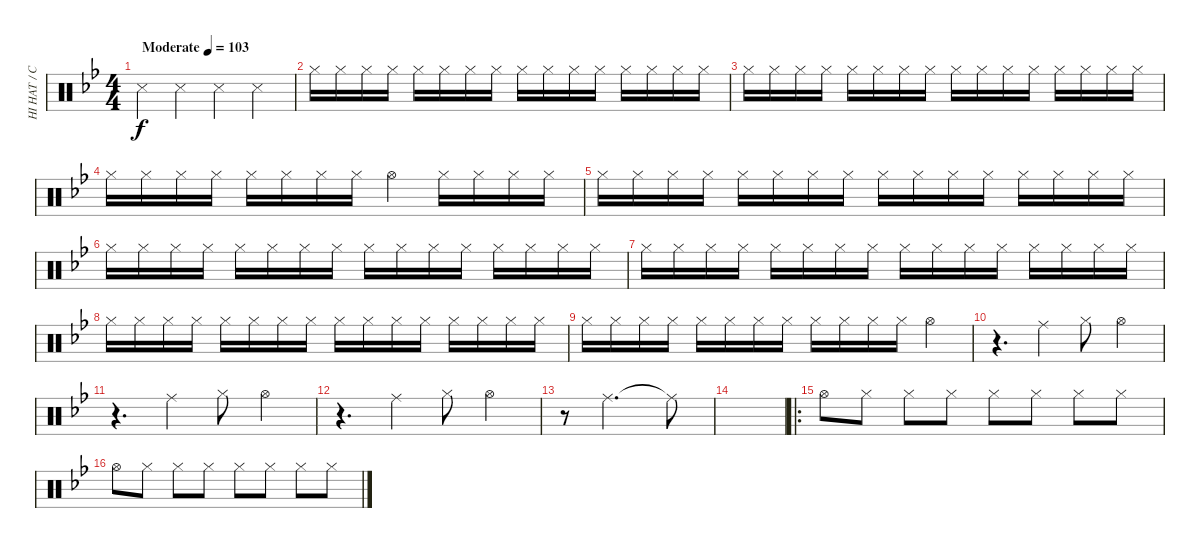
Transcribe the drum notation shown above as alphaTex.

\track ("HI HAT / CYMBALS" "HI HAT / C") {instrument percussion}
\staff {score}
\articulation defaults
\ts (4 4)
\tempo (103 "Moderate")
\clef neutral
\ks bb "Snare (side stick) 3".4{dy f} "Snare (side stick) 3".4 "Snare (side stick) 3".4 "Snare (side stick) 3".4
|
"Hi-Hat (closed)".16 "Hi-Hat (closed)".16 "Hi-Hat (closed)".16 "Hi-Hat (closed)".16 "Hi-Hat (closed)".16 "Hi-Hat (closed)".16 "Hi-Hat (closed)".16 "Hi-Hat (closed)".16 "Hi-Hat (closed)".16 "Hi-Hat (closed)".16 "Hi-Hat (closed)".16 "Hi-Hat (closed)".16 "Hi-Hat (closed)".16 "Hi-Hat (closed)".16 "Hi-Hat (closed)".16 "Hi-Hat (closed)".16 |
"Hi-Hat (closed)".16 "Hi-Hat (closed)".16 "Hi-Hat (closed)".16 "Hi-Hat (closed)".16 "Hi-Hat (closed)".16 "Hi-Hat (closed)".16 "Hi-Hat (closed)".16 "Hi-Hat (closed)".16 "Hi-Hat (closed)".16 "Hi-Hat (closed)".16 "Hi-Hat (closed)".16 "Hi-Hat (closed)".16 "Hi-Hat (closed)".16 "Hi-Hat (closed)".16 "Hi-Hat (closed)".16 "Hi-Hat (closed)".16 |
"Hi-Hat (closed)".16 "Hi-Hat (closed)".16 "Hi-Hat (closed)".16 "Hi-Hat (closed)".16 "Hi-Hat (closed)".16 "Hi-Hat (closed)".16 "Hi-Hat (closed)".16 "Hi-Hat (closed)".16 "Hi-Hat (open)".4 "Hi-Hat (closed)".16 "Hi-Hat (closed)".16 "Hi-Hat (closed)".16 "Hi-Hat (closed)".16 |
"Hi-Hat (closed)".16 "Hi-Hat (closed)".16 "Hi-Hat (closed)".16 "Hi-Hat (closed)".16 "Hi-Hat (closed)".16 "Hi-Hat (closed)".16 "Hi-Hat (closed)".16 "Hi-Hat (closed)".16 "Hi-Hat (closed)".16 "Hi-Hat (closed)".16 "Hi-Hat (closed)".16 "Hi-Hat (closed)".16 "Hi-Hat (closed)".16 "Hi-Hat (closed)".16 "Hi-Hat (closed)".16 "Hi-Hat (closed)".16 |
"Hi-Hat (closed)".16 "Hi-Hat (closed)".16 "Hi-Hat (closed)".16 "Hi-Hat (closed)".16 "Hi-Hat (closed)".16 "Hi-Hat (closed)".16 "Hi-Hat (closed)".16 "Hi-Hat (closed)".16 "Hi-Hat (closed)".16 "Hi-Hat (closed)".16 "Hi-Hat (closed)".16 "Hi-Hat (closed)".16 "Hi-Hat (closed)".16 "Hi-Hat (closed)".16 "Hi-Hat (closed)".16 "Hi-Hat (closed)".16 |
"Hi-Hat (closed)".16 "Hi-Hat (closed)".16 "Hi-Hat (closed)".16 "Hi-Hat (closed)".16 "Hi-Hat (closed)".16 "Hi-Hat (closed)".16 "Hi-Hat (closed)".16 "Hi-Hat (closed)".16 "Hi-Hat (closed)".16 "Hi-Hat (closed)".16 "Hi-Hat (closed)".16 "Hi-Hat (closed)".16 "Hi-Hat (closed)".16 "Hi-Hat (closed)".16 "Hi-Hat (closed)".16 "Hi-Hat (closed)".16 |
"Hi-Hat (closed)".16 "Hi-Hat (closed)".16 "Hi-Hat (closed)".16 "Hi-Hat (closed)".16 "Hi-Hat (closed)".16 "Hi-Hat (closed)".16 "Hi-Hat (closed)".16 "Hi-Hat (closed)".16 "Hi-Hat (closed)".16 "Hi-Hat (closed)".16 "Hi-Hat (closed)".16 "Hi-Hat (closed)".16 "Hi-Hat (closed)".16 "Hi-Hat (closed)".16 "Hi-Hat (closed)".16 "Hi-Hat (closed)".16 |
"Hi-Hat (closed)".16 "Hi-Hat (closed)".16 "Hi-Hat (closed)".16 "Hi-Hat (closed)".16 "Hi-Hat (closed)".16 "Hi-Hat (closed)".16 "Hi-Hat (closed)".16 "Hi-Hat (closed)".16 "Hi-Hat (closed)".16 "Hi-Hat (closed)".16 "Hi-Hat (closed)".16 "Hi-Hat (closed)".16 "Hi-Hat (open)".4 |
r.4{d} "Ride (middle)".4 "Hi-Hat (closed)".8 "Hi-Hat (open)".4 |
r.4{d} "Ride (middle)".4 "Hi-Hat (closed)".8 "Hi-Hat (open)".4 |
r.4{d} "Ride (middle)".4 "Hi-Hat (closed)".8 "Hi-Hat (open)".4 |
r.8 "Ride (middle)".2{d} "Ride (middle)"{t}.8 |
|
\ro "Hi-Hat (open)".8 "Hi-Hat (closed)".8 "Hi-Hat (closed)".8 "Hi-Hat (closed)".8 "Hi-Hat (closed)".8 "Hi-Hat (closed)".8 "Hi-Hat (closed)".8 "Hi-Hat (closed)".8
|
"Hi-Hat (open)".8 "Hi-Hat (closed)".8 "Hi-Hat (closed)".8 "Hi-Hat (closed)".8 "Hi-Hat (closed)".8 "Hi-Hat (closed)".8 "Hi-Hat (closed)".8 "Hi-Hat (closed)".8
